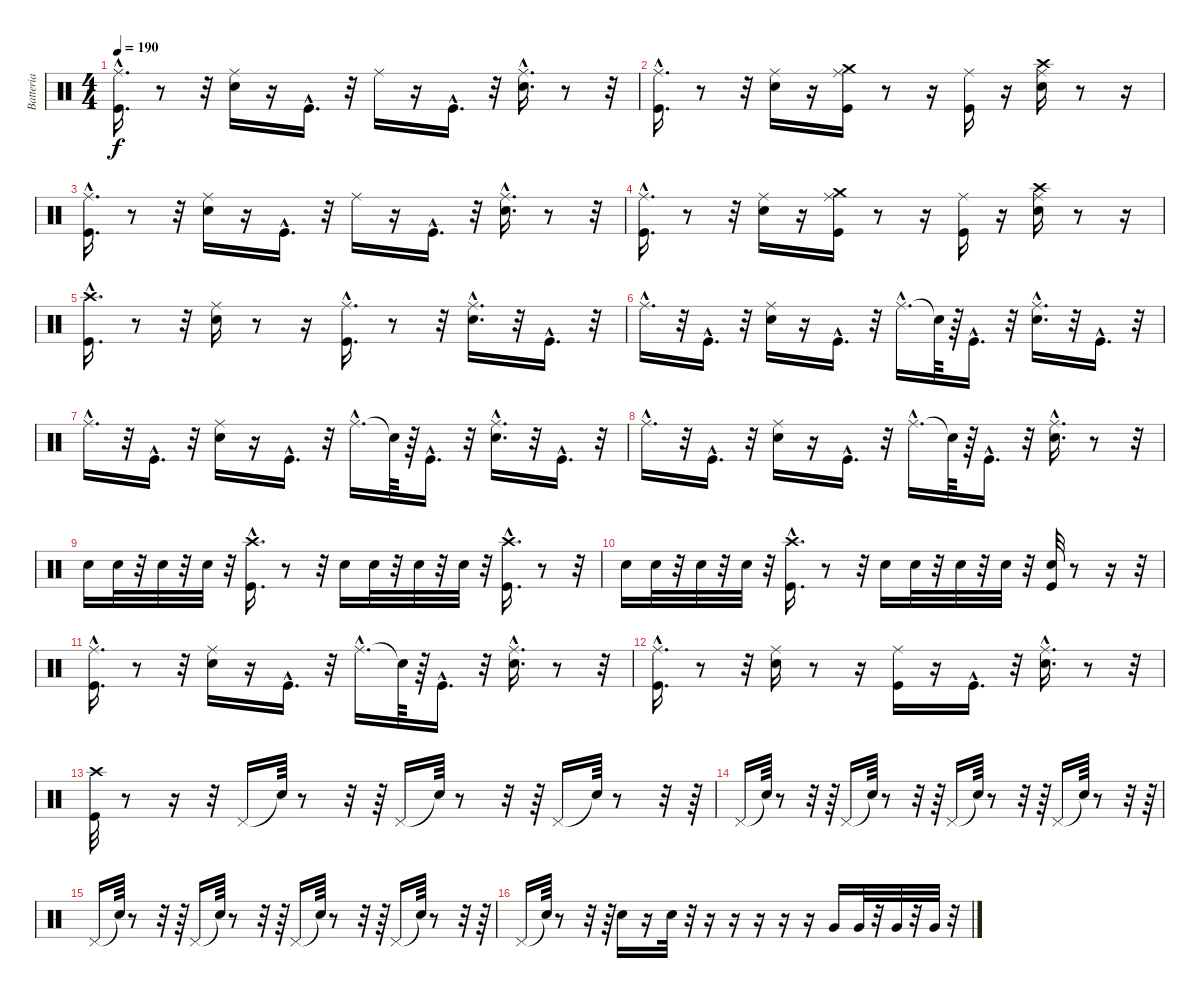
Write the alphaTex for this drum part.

\track ("Batteria" "Batteria") {instrument percussion}
\staff {score}
\articulation defaults
\ts (4 4)
\tempo 190
\clef neutral
\ks c
("Kick (hit)"{hac} "Ride (middle)"{hac}).16{d dy f} r.8 r.32 ("Snare (hit) 2" "Ride (middle)").16 r.16 "Kick (hit)"{hac}.16{d} r.32 "Ride (middle)".16 r.16 "Kick (hit)"{hac}.16{d} r.32 ("Snare (hit) 2"{hac} "Ride (middle)"{hac}).16{d} r.8 r.32 |
("Ride (middle)"{hac} "Kick (hit)"{hac}).16{d} r.8 r.32 ("Snare (hit) 2" "Ride (middle)").16 r.16 ("Ride (middle)" "Crash medium (hit)" "Kick (hit)").16 r.8 r.16 ("Kick (hit)" "Ride (middle)").16 r.16 ("Ride (middle)" "Crash high (hit)" "Snare (hit) 2").16 r.8 r.16 |
("Kick (hit)"{hac} "Ride (middle)"{hac}).16{d} r.8 r.32 ("Snare (hit) 2" "Ride (middle)").16 r.16 "Kick (hit)"{hac}.16{d} r.32 "Ride (middle)".16 r.16 "Kick (hit)"{hac}.16{d} r.32 ("Snare (hit) 2"{hac} "Ride (middle)"{hac}).16{d} r.8 r.32 |
("Ride (middle)"{hac} "Kick (hit)"{hac}).16{d} r.8 r.32 ("Ride (middle)" "Snare (hit) 2").16 r.16 ("Ride (middle)" "Crash medium (hit)" "Kick (hit)").16 r.8 r.16 ("Ride (middle)" "Kick (hit)").16 r.16 ("Ride (middle)" "Crash high (hit)" "Snare (hit) 2").16 r.8 r.16 |
("Kick (hit)"{hac} "Crash high (hit)"{hac}).16{d} r.8 r.32 ("Snare (hit) 2" "Ride (middle)").16 r.8 r.16 ("Kick (hit)"{hac} "Ride (middle)"{hac}).16{d} r.8 r.32 ("Ride (middle)"{hac} "Snare (hit) 2"{hac}).16{d} r.32 "Kick (hit)"{hac}.16{d} r.32 |
"Ride (middle)"{hac}.16{d} r.32 "Kick (hit)"{hac}.16{d} r.32 ("Ride (middle)" "Snare (hit) 2").16 r.16 "Kick (hit)"{hac}.16{d} r.32 "Ride (middle)"{hac}.16{d} "Snare (hit)"{t}.64 r.64 "Kick (hit)"{hac}.16{d} r.32 ("Snare (hit) 2"{hac} "Ride (middle)"{hac}).16{d} r.32 "Kick (hit)"{hac}.16{d} r.32 |
"Ride (middle)"{hac}.16{d} r.32 "Kick (hit)"{hac}.16{d} r.32 ("Snare (hit) 2" "Ride (middle)").16 r.16 "Kick (hit)"{hac}.16{d} r.32 "Ride (middle)"{hac}.16{d} "Snare (hit)"{t}.64 r.64 "Kick (hit)"{hac}.16{d} r.32 ("Snare (hit) 2"{hac} "Ride (middle)"{hac}).16{d} r.32 "Kick (hit)"{hac}.16{d} r.32 |
"Ride (middle)"{hac}.16{d} r.32 "Kick (hit)"{hac}.16{d} r.32 ("Snare (hit) 2" "Ride (middle)").16 r.16 "Kick (hit)"{hac}.16{d} r.32 "Ride (middle)"{hac}.16{d} "Snare (hit)"{t}.64 r.64 "Kick (hit)"{hac}.16{d} r.32 ("Snare (hit) 2"{hac} "Ride (middle)"{hac}).16{d} r.8 r.32 |
"Snare (hit) 2".16 "Snare (hit) 2".32 r.32 "Snare (hit) 2".32 r.32 "Snare (hit) 2".32 r.32 ("Kick (hit)"{hac} "Crash high (hit)"{hac}).16{d} r.8 r.32 "Snare (hit) 2".16 "Snare (hit) 2".32 r.32 "Snare (hit) 2".32 r.32 "Snare (hit) 2".32 r.32 ("Kick (hit)"{hac} "Crash high (hit)"{hac}).16{d} r.8 r.32 |
"Snare (hit) 2".16 "Snare (hit) 2".32 r.32 "Snare (hit) 2".32 r.32 "Snare (hit) 2".32 r.32 ("Crash high (hit)"{hac} "Kick (hit)"{hac}).16{d} r.8 r.32 "Snare (hit) 2".16 "Snare (hit) 2".32 r.32 "Snare (hit) 2".32 r.32 "Snare (hit) 2".32 r.32 ("Snare (hit) 2" "Kick (hit)").32 r.8 r.16 r.32 |
("Kick (hit)"{hac} "Ride (middle)"{hac}).16{d} r.8 r.32 ("Snare (hit) 2" "Ride (middle)").16 r.16 "Kick (hit)"{hac}.16{d} r.32 "Ride (middle)"{hac}.16{d} "Snare (hit)"{t}.64 r.64 "Kick (hit)"{hac}.16{d} r.32 ("Snare (hit) 2"{hac} "Ride (middle)"{hac}).16{d} r.8 r.32 |
("Kick (hit)"{hac} "Ride (middle)"{hac}).16{d} r.8 r.32 ("Snare (hit) 2" "Ride (middle)").16 r.8 r.16 ("Ride (middle)" "Kick (hit)").16 r.16 "Kick (hit)"{hac}.16{d} r.32 ("Ride (middle)"{hac} "Snare (hit) 2"{hac}).16{d} r.8 r.32 |
("Kick (hit)" "Crash high (hit)").32 r.8 r.16 r.32 "Pedal Hi-Hat (hit)".16 "Snare (hit)"{t}.64 r.8 r.32 r.64 "Pedal Hi-Hat (hit)".16 "Snare (hit)"{t}.64 r.8 r.32 r.64 "Pedal Hi-Hat (hit)".16 "Snare (hit)"{t}.64 r.8 r.32 r.64 |
"Pedal Hi-Hat (hit)".16 "Snare (hit)"{t}.64 r.8 r.32 r.64 "Pedal Hi-Hat (hit)".16 "Snare (hit)"{t}.64 r.8 r.32 r.64 "Pedal Hi-Hat (hit)".16 "Snare (hit)"{t}.64 r.8 r.32 r.64 "Pedal Hi-Hat (hit)".16 "Snare (hit)"{t}.64 r.8 r.32 r.64 |
"Pedal Hi-Hat (hit)".16 "Snare (hit)"{t}.64 r.8 r.32 r.64 "Pedal Hi-Hat (hit)".16 "Snare (hit)"{t}.64 r.8 r.32 r.64 "Pedal Hi-Hat (hit)".16 "Snare (hit)"{t}.64 r.8 r.32 r.64 "Pedal Hi-Hat (hit)".16 "Snare (hit)"{t}.64 r.8 r.32 r.64 |
"Pedal Hi-Hat (hit)".16 "Snare (hit)"{t}.64 r.8 r.32 r.64 "Snare (hit) 2".16 r.16 "Snare (hit) 2".32 r.32 r.16 r.16 r.16 r.16 r.16 "Very Low Tom (hit)".16 "Very Low Tom (hit)".32 r.32 "Very Low Tom (hit)".32 r.32 "Very Low Tom (hit)".32 r.32
